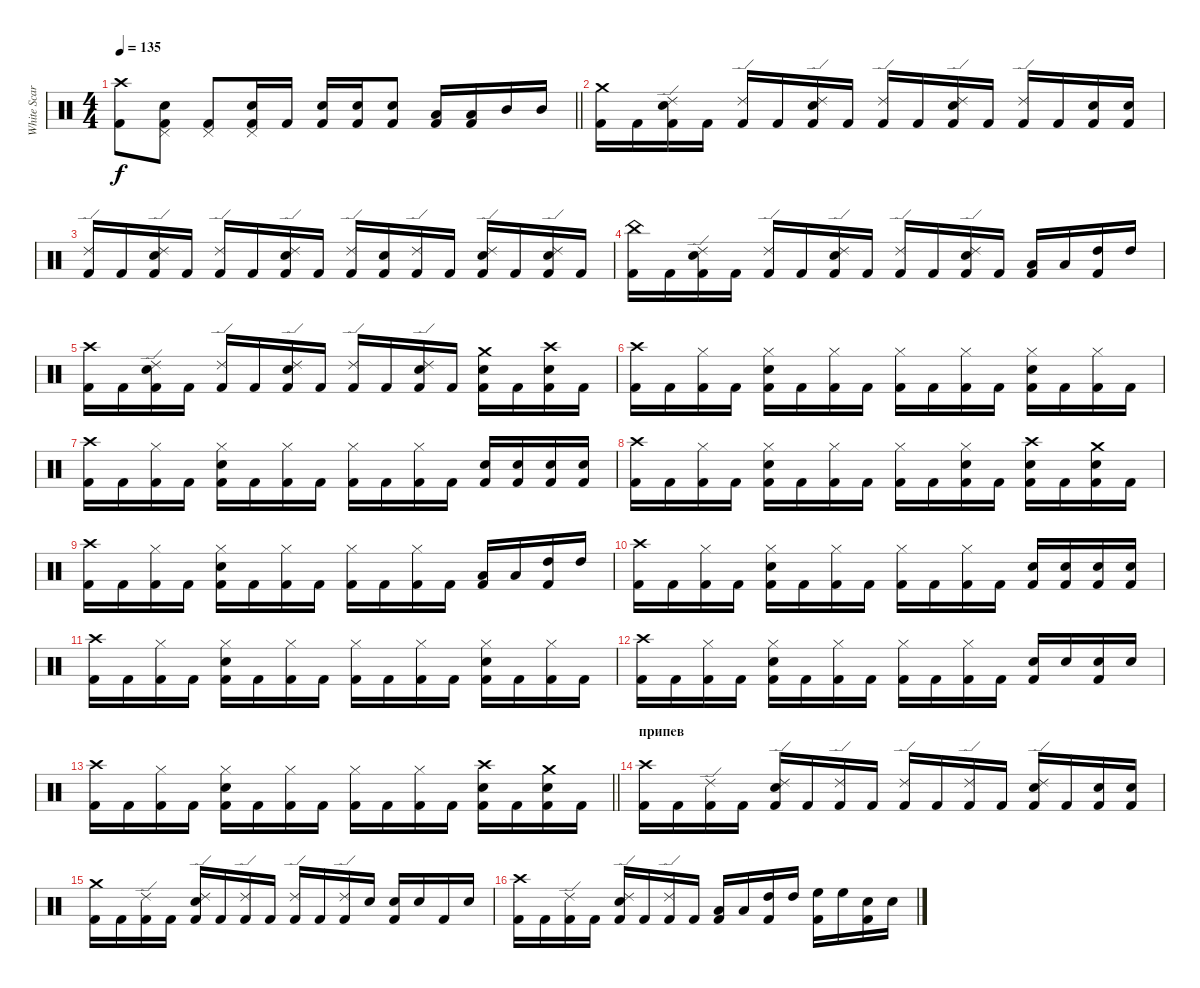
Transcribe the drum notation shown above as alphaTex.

\track ("White Scar" "White Scar") {instrument percussion}
\staff {score}
\articulation defaults
\ts (4 4)
\tempo 135
\clef neutral
\barLineRight lightlight
\ks c
("Crash high (hit)" "Kick (hit) 2").8{dy f} ("Pedal Hi-Hat (hit)" "Snare (hit) 2" "Kick (hit) 2").8 ("Pedal Hi-Hat (hit)" "Kick (hit) 2").8 ("Pedal Hi-Hat (hit)" "Snare (hit) 2" "Kick (hit) 2").16 "Kick (hit) 2".16 ("Snare (hit) 2" "Kick (hit) 2").16 ("Snare (hit) 2" "Kick (hit) 2").16 ("Snare (hit) 2" "Kick (hit) 2").8 ("Low Tom (hit)" "Kick (hit) 2").16 ("Low Tom (hit)" "Kick (hit) 2").16 "Mid Tom (hit)".16 "Mid Tom (hit)".16 |
("Crash medium (hit)" "Kick (hit) 2").16 "Kick (hit) 2".16 ("Ride (edge) 2" "Snare (hit) 2" "Kick (hit) 2").16 "Kick (hit) 2".16 ("Ride (edge) 2" "Kick (hit) 2").16 "Kick (hit) 2".16 ("Ride (edge) 2" "Snare (hit) 2" "Kick (hit) 2").16 "Kick (hit) 2".16 ("Ride (edge) 2" "Kick (hit) 2").16 "Kick (hit) 2".16 ("Ride (edge) 2" "Snare (hit) 2" "Kick (hit) 2").16 "Kick (hit) 2".16 ("Ride (edge) 2" "Kick (hit) 2").16 "Kick (hit) 2".16 ("Snare (hit) 2" "Kick (hit) 2").16 ("Snare (hit) 2" "Kick (hit) 2").16 |
("Ride (edge) 2" "Kick (hit) 2").16 "Kick (hit) 2".16 ("Ride (edge) 2" "Snare (hit) 2" "Kick (hit) 2").16 "Kick (hit) 2".16 ("Ride (edge) 2" "Kick (hit) 2").16 "Kick (hit) 2".16 ("Ride (edge) 2" "Snare (hit) 2" "Kick (hit) 2").16 "Kick (hit) 2".16 ("Ride (edge) 2" "Kick (hit) 2").16 ("Snare (hit) 2" "Kick (hit) 2").16 ("Ride (edge) 2" "Kick (hit) 2").16 "Kick (hit) 2".16 ("Ride (edge) 2" "Snare (hit) 2" "Kick (hit) 2").16 "Kick (hit) 2".16 ("Ride (edge) 2" "Snare (hit) 2" "Kick (hit) 2").16 "Kick (hit) 2".16 |
("China (hit)" "Kick (hit) 2").16 "Kick (hit) 2".16 ("Ride (edge) 2" "Snare (hit) 2" "Kick (hit) 2").16 "Kick (hit) 2".16 ("Ride (edge) 2" "Kick (hit) 2").16 "Kick (hit) 2".16 ("Ride (edge) 2" "Snare (hit) 2" "Kick (hit) 2").16 "Kick (hit) 2".16 ("Ride (edge) 2" "Kick (hit) 2").16 "Kick (hit) 2".16 ("Ride (edge) 2" "Snare (hit) 2" "Kick (hit) 2").16 "Kick (hit) 2".16 ("Low Tom (hit)" "Kick (hit) 2").16 "Low Tom (hit)".16 ("High Tom (hit)" "Kick (hit) 2").16 "High Tom (hit)".16 |
("Crash high (hit)" "Kick (hit) 2").16 "Kick (hit) 2".16 ("Ride (edge) 2" "Snare (hit) 2" "Kick (hit) 2").16 "Kick (hit) 2".16 ("Ride (edge) 2" "Kick (hit) 2").16 "Kick (hit) 2".16 ("Ride (edge) 2" "Snare (hit) 2" "Kick (hit) 2").16 "Kick (hit) 2".16 ("Ride (edge) 2" "Kick (hit) 2").16 "Kick (hit) 2".16 ("Ride (edge) 2" "Snare (hit) 2" "Kick (hit) 2").16 "Kick (hit) 2".16 ("Crash medium (hit)" "Snare (hit) 2" "Kick (hit) 2").16 "Kick (hit) 2".16 ("Crash high (hit)" "Snare (hit) 2" "Kick (hit) 2").16 "Kick (hit) 2".16 |
("Crash high (hit)" "Kick (hit) 2").16 "Kick (hit) 2".16 ("Hi-Hat (closed)" "Kick (hit) 2").16 "Kick (hit) 2".16 ("Snare (hit) 2" "Hi-Hat (closed)" "Kick (hit) 2").16 "Kick (hit) 2".16 ("Hi-Hat (closed)" "Kick (hit) 2").16 "Kick (hit) 2".16 ("Hi-Hat (closed)" "Kick (hit) 2").16 "Kick (hit) 2".16 ("Hi-Hat (closed)" "Kick (hit) 2").16 "Kick (hit) 2".16 ("Snare (hit) 2" "Hi-Hat (closed)" "Kick (hit) 2").16 "Kick (hit) 2".16 ("Hi-Hat (closed)" "Kick (hit) 2").16 "Kick (hit) 2".16 |
("Crash high (hit)" "Kick (hit) 2").16 "Kick (hit) 2".16 ("Hi-Hat (closed)" "Kick (hit) 2").16 "Kick (hit) 2".16 ("Snare (hit) 2" "Hi-Hat (closed)" "Kick (hit) 2").16 "Kick (hit) 2".16 ("Hi-Hat (closed)" "Kick (hit) 2").16 "Kick (hit) 2".16 ("Hi-Hat (closed)" "Kick (hit) 2").16 "Kick (hit) 2".16 ("Hi-Hat (closed)" "Kick (hit) 2").16 "Kick (hit) 2".16 ("Snare (hit) 2" "Kick (hit) 2").16 ("Snare (hit) 2" "Kick (hit) 2").16 ("Snare (hit) 2" "Kick (hit) 2").16 ("Snare (hit) 2" "Kick (hit) 2").16 |
("Crash high (hit)" "Kick (hit) 2").16 "Kick (hit) 2".16 ("Hi-Hat (closed)" "Kick (hit) 2").16 "Kick (hit) 2".16 ("Snare (hit) 2" "Hi-Hat (closed)" "Kick (hit) 2").16 "Kick (hit) 2".16 ("Hi-Hat (closed)" "Kick (hit) 2").16 "Kick (hit) 2".16 ("Hi-Hat (closed)" "Kick (hit) 2").16 "Kick (hit) 2".16 ("Snare (hit) 2" "Hi-Hat (closed)" "Kick (hit) 2").16 "Kick (hit) 2".16 ("Snare (hit) 2" "Crash high (hit)" "Kick (hit) 2").16 "Kick (hit) 2".16 ("Snare (hit) 2" "Crash medium (hit)" "Kick (hit) 2").16 "Kick (hit) 2".16 |
("Crash high (hit)" "Kick (hit) 2").16 "Kick (hit) 2".16 ("Hi-Hat (closed)" "Kick (hit) 2").16 "Kick (hit) 2".16 ("Snare (hit) 2" "Hi-Hat (closed)" "Kick (hit) 2").16 "Kick (hit) 2".16 ("Hi-Hat (closed)" "Kick (hit) 2").16 "Kick (hit) 2".16 ("Hi-Hat (closed)" "Kick (hit) 2").16 "Kick (hit) 2".16 ("Hi-Hat (closed)" "Kick (hit) 2").16 "Kick (hit) 2".16 ("Low Tom (hit)" "Kick (hit) 2").16 "Low Tom (hit)".16 ("High Tom (hit)" "Kick (hit) 2").16 "High Tom (hit)".16 |
("Crash high (hit)" "Kick (hit) 2").16 "Kick (hit) 2".16 ("Hi-Hat (closed)" "Kick (hit) 2").16 "Kick (hit) 2".16 ("Snare (hit) 2" "Hi-Hat (closed)" "Kick (hit) 2").16 "Kick (hit) 2".16 ("Hi-Hat (closed)" "Kick (hit) 2").16 "Kick (hit) 2".16 ("Hi-Hat (closed)" "Kick (hit) 2").16 "Kick (hit) 2".16 ("Hi-Hat (closed)" "Kick (hit) 2").16 "Kick (hit) 2".16 ("Snare (hit) 2" "Kick (hit) 2").16 ("Snare (hit) 2" "Kick (hit) 2").16 ("Snare (hit) 2" "Kick (hit) 2").16 ("Snare (hit) 2" "Kick (hit) 2").16 |
("Crash high (hit)" "Kick (hit) 2").16 "Kick (hit) 2".16 ("Hi-Hat (closed)" "Kick (hit) 2").16 "Kick (hit) 2".16 ("Snare (hit) 2" "Hi-Hat (closed)" "Kick (hit) 2").16 "Kick (hit) 2".16 ("Hi-Hat (closed)" "Kick (hit) 2").16 "Kick (hit) 2".16 ("Hi-Hat (closed)" "Kick (hit) 2").16 "Kick (hit) 2".16 ("Hi-Hat (closed)" "Kick (hit) 2").16 "Kick (hit) 2".16 ("Snare (hit) 2" "Hi-Hat (closed)" "Kick (hit) 2").16 "Kick (hit) 2".16 ("Hi-Hat (closed)" "Kick (hit) 2").16 "Kick (hit) 2".16 |
("Crash high (hit)" "Kick (hit) 2").16 "Kick (hit) 2".16 ("Hi-Hat (closed)" "Kick (hit) 2").16 "Kick (hit) 2".16 ("Snare (hit) 2" "Hi-Hat (closed)" "Kick (hit) 2").16 "Kick (hit) 2".16 ("Hi-Hat (closed)" "Kick (hit) 2").16 "Kick (hit) 2".16 ("Hi-Hat (closed)" "Kick (hit) 2").16 "Kick (hit) 2".16 ("Hi-Hat (closed)" "Kick (hit) 2").16 "Kick (hit) 2".16 ("Snare (hit) 2" "Kick (hit) 2").16 "Snare (hit) 2".16 ("Snare (hit) 2" "Kick (hit) 2").16 "Snare (hit) 2".16 |
\barLineRight lightlight
("Crash high (hit)" "Kick (hit) 2").16 "Kick (hit) 2".16 ("Hi-Hat (closed)" "Kick (hit) 2").16 "Kick (hit) 2".16 ("Snare (hit) 2" "Hi-Hat (closed)" "Kick (hit) 2").16 "Kick (hit) 2".16 ("Hi-Hat (closed)" "Kick (hit) 2").16 "Kick (hit) 2".16 ("Hi-Hat (closed)" "Kick (hit) 2").16 "Kick (hit) 2".16 ("Hi-Hat (closed)" "Kick (hit) 2").16 "Kick (hit) 2".16 ("Snare (hit) 2" "Crash high (hit)" "Kick (hit) 2").16 "Kick (hit) 2".16 ("Snare (hit) 2" "Crash medium (hit)" "Kick (hit) 2").16 "Kick (hit) 2".16 |
\section ("" "припев")
("Kick (hit) 2" "Crash high (hit)").16 "Kick (hit) 2".16 ("Kick (hit) 2" "Ride (edge) 2").16 "Kick (hit) 2".16 ("Kick (hit) 2" "Snare (hit) 2" "Ride (edge) 2").16 "Kick (hit) 2".16 ("Kick (hit) 2" "Ride (edge) 2").16 "Kick (hit) 2".16 ("Kick (hit) 2" "Ride (edge) 2").16 "Kick (hit) 2".16 ("Kick (hit) 2" "Ride (edge) 2").16 "Kick (hit) 2".16 ("Kick (hit) 2" "Snare (hit) 2" "Ride (edge) 2").16 "Kick (hit) 2".16 ("Kick (hit) 2" "Snare (hit) 2").16 ("Kick (hit) 2" "Snare (hit) 2").16 |
("Kick (hit) 2" "Crash medium (hit)").16 "Kick (hit) 2".16 ("Kick (hit) 2" "Ride (edge) 2").16 "Kick (hit) 2".16 ("Kick (hit) 2" "Snare (hit) 2" "Ride (edge) 2").16 "Kick (hit) 2".16 ("Kick (hit) 2" "Ride (edge) 2").16 "Kick (hit) 2".16 ("Kick (hit) 2" "Ride (edge) 2").16 "Kick (hit) 2".16 ("Kick (hit) 2" "Ride (edge) 2").16 "Snare (hit) 2".16 ("Kick (hit) 2" "Snare (hit) 2").16 "Snare (hit) 2".16 "Kick (hit) 2".16 "Snare (hit) 2".16 |
("Kick (hit) 2" "Crash high (hit)").16 "Kick (hit) 2".16 ("Kick (hit) 2" "Ride (edge) 2").16 "Kick (hit) 2".16 ("Kick (hit) 2" "Snare (hit) 2" "Ride (edge) 2").16 "Kick (hit) 2".16 ("Kick (hit) 2" "Ride (edge) 2").16 "Kick (hit) 2".16 ("Kick (hit) 2" "Low Tom (hit)").16 "Low Tom (hit)".16 ("Kick (hit) 2" "High Tom (hit)").16 "High Tom (hit)".16 ("Kick (hit) 2" "High Floor Tom (hit)").16 "High Floor Tom (hit)".16 ("Kick (hit) 2" "Snare (hit) 2").16 "Snare (hit) 2".16
